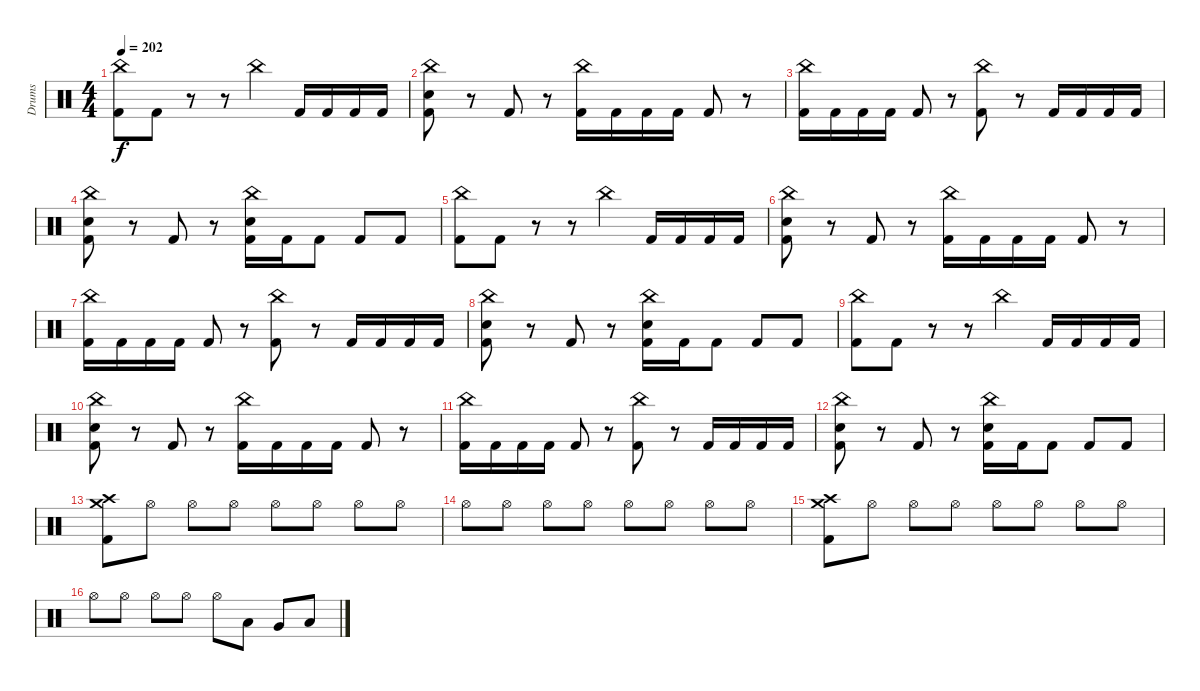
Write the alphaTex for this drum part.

\track ("Drums" "Drums") {instrument percussion}
\staff {score}
\articulation defaults
\ts (4 4)
\tempo 202
\clef neutral
\ks c
("China (hit)" "Kick (hit) 2").8{dy f} "Kick (hit) 2".8 r.8 r.8 "China (hit)".4 "Kick (hit) 2".16 "Kick (hit) 2".16 "Kick (hit) 2".16 "Kick (hit) 2".16 |
("China (hit)" "Electric Snare (hit)" "Kick (hit) 2").8 r.8 "Kick (hit) 2".8 r.8 ("China (hit)" "Kick (hit) 2").16 "Kick (hit) 2".16 "Kick (hit) 2".16 "Kick (hit) 2".16 "Kick (hit) 2".8 r.8 |
("China (hit)" "Kick (hit) 2").16 "Kick (hit) 2".16 "Kick (hit) 2".16 "Kick (hit) 2".16 "Kick (hit) 2".8 r.8 ("China (hit)" "Kick (hit) 2").8 r.8 "Kick (hit) 2".16 "Kick (hit) 2".16 "Kick (hit) 2".16 "Kick (hit) 2".16 |
("China (hit)" "Electric Snare (hit)" "Kick (hit) 2").8 r.8 "Kick (hit) 2".8 r.8 ("China (hit)" "Electric Snare (hit)" "Kick (hit) 2").16 "Kick (hit) 2".16 "Kick (hit) 2".8 "Kick (hit) 2".8 "Kick (hit) 2".8 |
("China (hit)" "Kick (hit) 2").8 "Kick (hit) 2".8 r.8 r.8 "China (hit)".4 "Kick (hit) 2".16 "Kick (hit) 2".16 "Kick (hit) 2".16 "Kick (hit) 2".16 |
("China (hit)" "Electric Snare (hit)" "Kick (hit) 2").8 r.8 "Kick (hit) 2".8 r.8 ("China (hit)" "Kick (hit) 2").16 "Kick (hit) 2".16 "Kick (hit) 2".16 "Kick (hit) 2".16 "Kick (hit) 2".8 r.8 |
("China (hit)" "Kick (hit) 2").16 "Kick (hit) 2".16 "Kick (hit) 2".16 "Kick (hit) 2".16 "Kick (hit) 2".8 r.8 ("China (hit)" "Kick (hit) 2").8 r.8 "Kick (hit) 2".16 "Kick (hit) 2".16 "Kick (hit) 2".16 "Kick (hit) 2".16 |
("China (hit)" "Electric Snare (hit)" "Kick (hit) 2").8 r.8 "Kick (hit) 2".8 r.8 ("China (hit)" "Electric Snare (hit)" "Kick (hit) 2").16 "Kick (hit) 2".16 "Kick (hit) 2".8 "Kick (hit) 2".8 "Kick (hit) 2".8 |
("China (hit)" "Kick (hit) 2").8 "Kick (hit) 2".8 r.8 r.8 "China (hit)".4 "Kick (hit) 2".16 "Kick (hit) 2".16 "Kick (hit) 2".16 "Kick (hit) 2".16 |
("China (hit)" "Electric Snare (hit)" "Kick (hit) 2").8 r.8 "Kick (hit) 2".8 r.8 ("China (hit)" "Kick (hit) 2").16 "Kick (hit) 2".16 "Kick (hit) 2".16 "Kick (hit) 2".16 "Kick (hit) 2".8 r.8 |
("China (hit)" "Kick (hit) 2").16 "Kick (hit) 2".16 "Kick (hit) 2".16 "Kick (hit) 2".16 "Kick (hit) 2".8 r.8 ("China (hit)" "Kick (hit) 2").8 r.8 "Kick (hit) 2".16 "Kick (hit) 2".16 "Kick (hit) 2".16 "Kick (hit) 2".16 |
("China (hit)" "Electric Snare (hit)" "Kick (hit) 2").8 r.8 "Kick (hit) 2".8 r.8 ("China (hit)" "Electric Snare (hit)" "Kick (hit) 2").16 "Kick (hit) 2".16 "Kick (hit) 2".8 "Kick (hit) 2".8 "Kick (hit) 2".8 |
("Crash medium (hit)" "Crash high (hit)" "Kick (hit) 2").8 "Hi-Hat (open)".8 "Hi-Hat (open)".8 "Hi-Hat (open)".8 "Hi-Hat (open)".8 "Hi-Hat (open)".8 "Hi-Hat (open)".8 "Hi-Hat (open)".8 |
"Hi-Hat (open)".8 "Hi-Hat (open)".8 "Hi-Hat (open)".8 "Hi-Hat (open)".8 "Hi-Hat (open)".8 "Hi-Hat (open)".8 "Hi-Hat (open)".8 "Hi-Hat (open)".8 |
("Crash medium (hit)" "Crash high (hit)" "Kick (hit) 2").8 "Hi-Hat (open)".8 "Hi-Hat (open)".8 "Hi-Hat (open)".8 "Hi-Hat (open)".8 "Hi-Hat (open)".8 "Hi-Hat (open)".8 "Hi-Hat (open)".8 |
"Hi-Hat (open)".8 "Hi-Hat (open)".8 "Hi-Hat (open)".8 "Hi-Hat (open)".8 "Hi-Hat (open)".8 "Low Tom (hit)".8 "Very Low Tom (hit)".8 "Low Floor Tom (hit)".8
